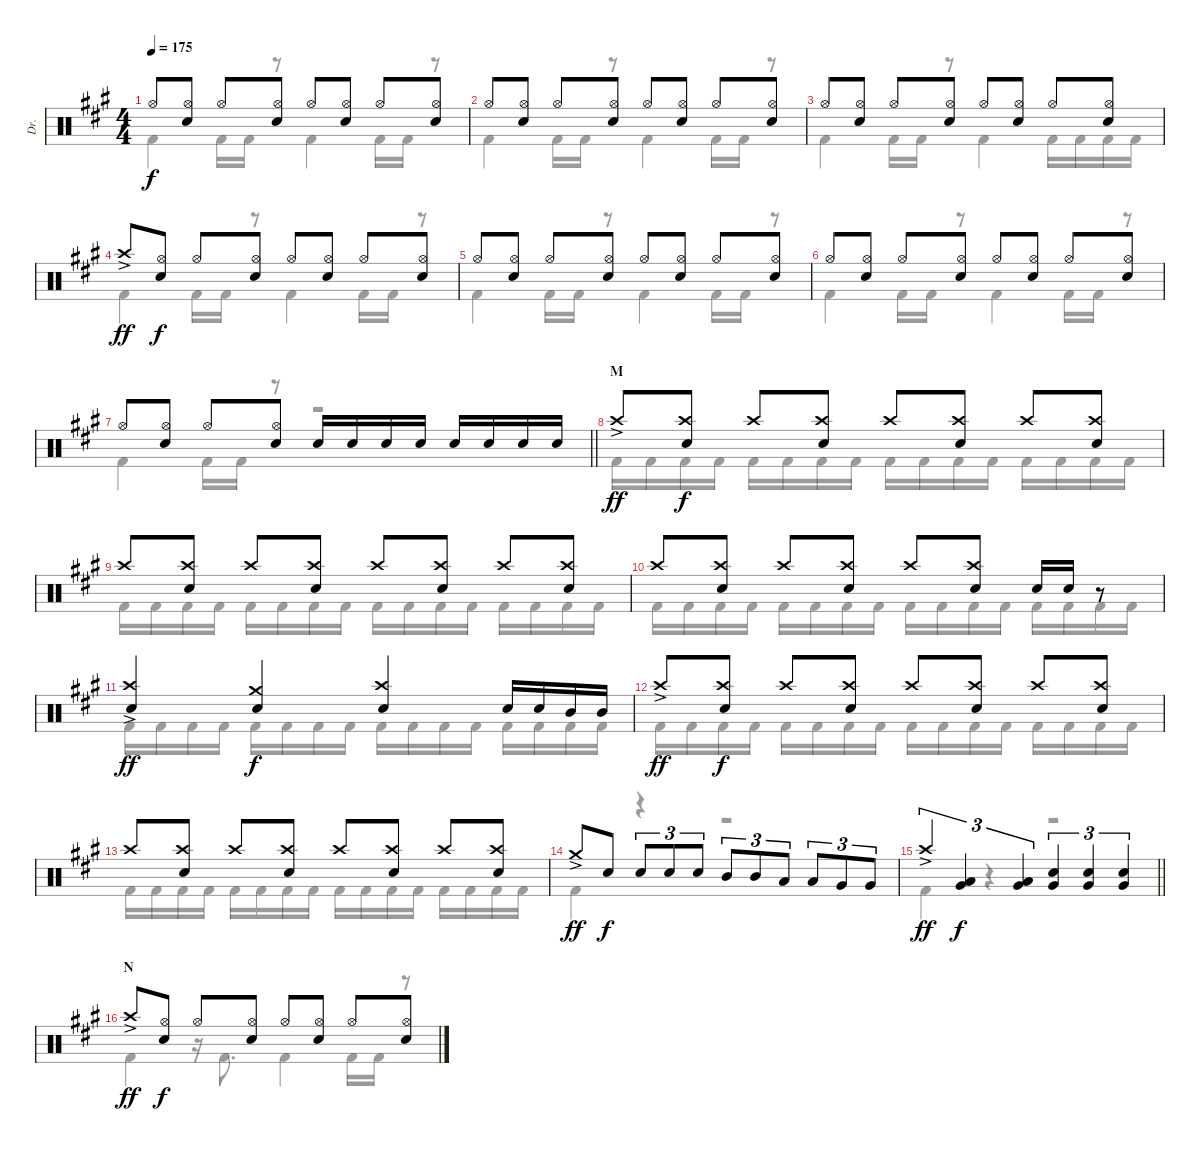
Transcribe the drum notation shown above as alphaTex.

\track ("Dr." "Dr.") {instrument percussion}
\staff {score}
\articulation defaults
\voice
\ts (4 4)
\tempo 175
\clef neutral
\ks f#minor "Hi-Hat (open)".8{dy f}
("Hi-Hat (open)" "Electric Snare (hit)").8 "Hi-Hat (open)".8 ("Hi-Hat (open)" "Electric Snare (hit)").8 "Hi-Hat (open)".8 ("Hi-Hat (open)" "Electric Snare (hit)").8 "Hi-Hat (open)".8 ("Hi-Hat (open)" "Electric Snare (hit)").8 |
"Hi-Hat (open)".8 ("Hi-Hat (open)" "Electric Snare (hit)").8 "Hi-Hat (open)".8 ("Hi-Hat (open)" "Electric Snare (hit)").8 "Hi-Hat (open)".8 ("Hi-Hat (open)" "Electric Snare (hit)").8 "Hi-Hat (open)".8 ("Hi-Hat (open)" "Electric Snare (hit)").8 |
"Hi-Hat (open)".8 ("Hi-Hat (open)" "Electric Snare (hit)").8 "Hi-Hat (open)".8 ("Hi-Hat (open)" "Electric Snare (hit)").8 "Hi-Hat (open)".8 ("Hi-Hat (open)" "Electric Snare (hit)").8 "Hi-Hat (open)".8 ("Hi-Hat (open)" "Electric Snare (hit)").8 |
"Crash high (hit)"{ac}.8{dy ff} ("Hi-Hat (open)" "Electric Snare (hit)").8{dy f} "Hi-Hat (open)".8 ("Hi-Hat (open)" "Electric Snare (hit)").8 "Hi-Hat (open)".8 ("Hi-Hat (open)" "Electric Snare (hit)").8 "Hi-Hat (open)".8 ("Hi-Hat (open)" "Electric Snare (hit)").8 |
"Hi-Hat (open)".8 ("Hi-Hat (open)" "Electric Snare (hit)").8 "Hi-Hat (open)".8 ("Hi-Hat (open)" "Electric Snare (hit)").8 "Hi-Hat (open)".8 ("Hi-Hat (open)" "Electric Snare (hit)").8 "Hi-Hat (open)".8 ("Hi-Hat (open)" "Electric Snare (hit)").8 |
"Hi-Hat (open)".8 ("Hi-Hat (open)" "Electric Snare (hit)").8 "Hi-Hat (open)".8 ("Hi-Hat (open)" "Electric Snare (hit)").8 "Hi-Hat (open)".8 ("Hi-Hat (open)" "Electric Snare (hit)").8 "Hi-Hat (open)".8 ("Hi-Hat (open)" "Electric Snare (hit)").8 |
\barLineRight lightlight "Hi-Hat (open)".8
("Hi-Hat (open)" "Electric Snare (hit)").8 "Hi-Hat (open)".8 ("Hi-Hat (open)" "Electric Snare (hit)").8 "Electric Snare (hit)".16 "Electric Snare (hit)".16 "Electric Snare (hit)".16 "Electric Snare (hit)".16 "Electric Snare (hit)".16 "Electric Snare (hit)".16 "Electric Snare (hit)".16 "Electric Snare (hit)".16 |
\section ("" "M")
"Crash high (hit)"{ac}.8{dy ff} ("Crash high (hit)" "Electric Snare (hit)").8{dy f} "Crash high (hit)".8 ("Crash high (hit)" "Electric Snare (hit)").8 "Crash high (hit)".8 ("Crash high (hit)" "Electric Snare (hit)").8 "Crash high (hit)".8 ("Crash high (hit)" "Electric Snare (hit)").8 |
"Crash high (hit)".8 ("Crash high (hit)" "Electric Snare (hit)").8 "Crash high (hit)".8 ("Crash high (hit)" "Electric Snare (hit)").8 "Crash high (hit)".8 ("Crash high (hit)" "Electric Snare (hit)").8 "Crash high (hit)".8 ("Crash high (hit)" "Electric Snare (hit)").8 |
"Crash high (hit)".8 ("Crash high (hit)" "Electric Snare (hit)").8 "Crash high (hit)".8 ("Crash high (hit)" "Electric Snare (hit)").8 "Crash high (hit)".8 ("Crash high (hit)" "Electric Snare (hit)").8 "Electric Snare (hit)".16 "Electric Snare (hit)".16 r.8 |
("Crash high (hit)"{ac} "Electric Snare (hit)").4{dy ff} ("Crash medium (hit)" "Electric Snare (hit)").4{dy f} ("Crash high (hit)" "Electric Snare (hit)").4 "Electric Snare (hit)".16 "Electric Snare (hit)".16 "Mid Tom (hit)".16 "Mid Tom (hit)".16 |
"Crash high (hit)"{ac}.8{dy ff} ("Crash high (hit)" "Electric Snare (hit)").8{dy f} "Crash high (hit)".8 ("Crash high (hit)" "Electric Snare (hit)").8 "Crash high (hit)".8 ("Crash high (hit)" "Electric Snare (hit)").8 "Crash high (hit)".8 ("Crash high (hit)" "Electric Snare (hit)").8 |
"Crash high (hit)".8 ("Crash high (hit)" "Electric Snare (hit)").8 "Crash high (hit)".8 ("Crash high (hit)" "Electric Snare (hit)").8 "Crash high (hit)".8 ("Crash high (hit)" "Electric Snare (hit)").8 "Crash high (hit)".8 ("Crash high (hit)" "Electric Snare (hit)").8 |
"Crash medium (hit)"{ac}.8{dy ff} "Electric Snare (hit)".8{dy f} "Electric Snare (hit)".8{tu (3 2)} "Electric Snare (hit)".8{tu (3 2)} "Electric Snare (hit)".8{tu (3 2)} "Mid Tom (hit)".8{tu (3 2)} "Mid Tom (hit)".8{tu (3 2)} "Low Tom (hit)".8{tu (3 2)} "Low Tom (hit)".8{tu (3 2)} "Very Low Tom (hit)".8{tu (3 2)} "Very Low Tom (hit)".8{tu (3 2)} |
\barLineRight lightlight "Crash high (hit)"{ac}.4{tu (3 2) dy ff}
("Low Tom (hit)" "Very Low Tom (hit)").4{tu (3 2) dy f} ("Low Tom (hit)" "Very Low Tom (hit)").4{tu (3 2)} ("Electric Snare (hit)" "Very Low Tom (hit)").4{tu (3 2)} ("Electric Snare (hit)" "Very Low Tom (hit)").4{tu (3 2)} ("Electric Snare (hit)" "Very Low Tom (hit)").4{tu (3 2)} |
\section ("" "N")
"Crash high (hit)"{ac}.8{dy ff} ("Hi-Hat (open)" "Electric Snare (hit)").8{dy f} "Hi-Hat (open)".8 ("Hi-Hat (open)" "Electric Snare (hit)").8 "Hi-Hat (open)".8 ("Hi-Hat (open)" "Electric Snare (hit)").8 "Hi-Hat (open)".8 ("Hi-Hat (open)" "Electric Snare (hit)").8
\voice
\clef neutral
\ottava regular
\simile none
\ks f#minor "Kick (hit) 2".4{dy f} "Kick (hit) 2".16 "Kick (hit) 2".16
r.8 "Kick (hit) 2".4 "Kick (hit) 2".16 "Kick (hit) 2".16 r.8 |
"Kick (hit) 2".4 "Kick (hit) 2".16 "Kick (hit) 2".16 r.8 "Kick (hit) 2".4 "Kick (hit) 2".16 "Kick (hit) 2".16 r.8 |
"Kick (hit) 2".4 "Kick (hit) 2".16 "Kick (hit) 2".16 r.8 "Kick (hit) 2".4 "Kick (hit) 2".16 "Kick (hit) 2".16 "Kick (hit) 2".16 "Kick (hit) 2".16 |
"Kick (hit) 2".4 "Kick (hit) 2".16 "Kick (hit) 2".16 r.8 "Kick (hit) 2".4 "Kick (hit) 2".16 "Kick (hit) 2".16 r.8 |
"Kick (hit) 2".4 "Kick (hit) 2".16 "Kick (hit) 2".16 r.8 "Kick (hit) 2".4 "Kick (hit) 2".16 "Kick (hit) 2".16 r.8 |
"Kick (hit) 2".4 "Kick (hit) 2".16 "Kick (hit) 2".16 r.8 "Kick (hit) 2".4 "Kick (hit) 2".16 "Kick (hit) 2".16 r.8 |
\barLineRight lightlight "Kick (hit) 2".4 "Kick (hit) 2".16 "Kick (hit) 2".16
r.8 r.2 |
"Kick (hit) 2".16 "Kick (hit) 2".16 "Kick (hit) 2".16 "Kick (hit) 2".16 "Kick (hit) 2".16 "Kick (hit) 2".16 "Kick (hit) 2".16 "Kick (hit) 2".16 "Kick (hit) 2".16 "Kick (hit) 2".16 "Kick (hit) 2".16 "Kick (hit) 2".16 "Kick (hit) 2".16 "Kick (hit) 2".16 "Kick (hit) 2".16 "Kick (hit) 2".16 |
"Kick (hit) 2".16 "Kick (hit) 2".16 "Kick (hit) 2".16 "Kick (hit) 2".16 "Kick (hit) 2".16 "Kick (hit) 2".16 "Kick (hit) 2".16 "Kick (hit) 2".16 "Kick (hit) 2".16 "Kick (hit) 2".16 "Kick (hit) 2".16 "Kick (hit) 2".16 "Kick (hit) 2".16 "Kick (hit) 2".16 "Kick (hit) 2".16 "Kick (hit) 2".16 |
"Kick (hit) 2".16 "Kick (hit) 2".16 "Kick (hit) 2".16 "Kick (hit) 2".16 "Kick (hit) 2".16 "Kick (hit) 2".16 "Kick (hit) 2".16 "Kick (hit) 2".16 "Kick (hit) 2".16 "Kick (hit) 2".16 "Kick (hit) 2".16 "Kick (hit) 2".16 "Kick (hit) 2".16 "Kick (hit) 2".16 "Kick (hit) 2".16 "Kick (hit) 2".16 |
"Kick (hit) 2".16 "Kick (hit) 2".16 "Kick (hit) 2".16 "Kick (hit) 2".16 "Kick (hit) 2".16 "Kick (hit) 2".16 "Kick (hit) 2".16 "Kick (hit) 2".16 "Kick (hit) 2".16 "Kick (hit) 2".16 "Kick (hit) 2".16 "Kick (hit) 2".16 "Kick (hit) 2".16 "Kick (hit) 2".16 "Kick (hit) 2".16 "Kick (hit) 2".16 |
"Kick (hit) 2".16 "Kick (hit) 2".16 "Kick (hit) 2".16 "Kick (hit) 2".16 "Kick (hit) 2".16 "Kick (hit) 2".16 "Kick (hit) 2".16 "Kick (hit) 2".16 "Kick (hit) 2".16 "Kick (hit) 2".16 "Kick (hit) 2".16 "Kick (hit) 2".16 "Kick (hit) 2".16 "Kick (hit) 2".16 "Kick (hit) 2".16 "Kick (hit) 2".16 |
"Kick (hit) 2".16 "Kick (hit) 2".16 "Kick (hit) 2".16 "Kick (hit) 2".16 "Kick (hit) 2".16 "Kick (hit) 2".16 "Kick (hit) 2".16 "Kick (hit) 2".16 "Kick (hit) 2".16 "Kick (hit) 2".16 "Kick (hit) 2".16 "Kick (hit) 2".16 "Kick (hit) 2".16 "Kick (hit) 2".16 "Kick (hit) 2".16 "Kick (hit) 2".16 |
"Kick (hit) 2".4 r.4 r.2 |
\barLineRight lightlight "Kick (hit) 2".4
r.4 r.2 |
"Kick (hit) 2".4 r.16 "Kick (hit) 2".8{d} "Kick (hit) 2".4 "Kick (hit) 2".16 "Kick (hit) 2".16 r.8
